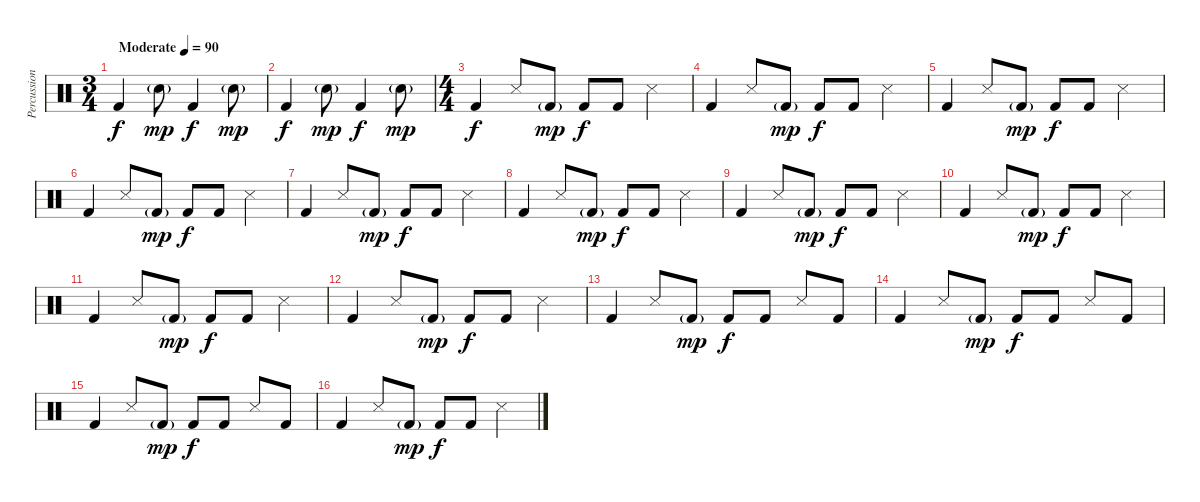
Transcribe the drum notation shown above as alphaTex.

\track ("Percussion" "Percussion") {instrument percussion}
\staff {score}
\articulation defaults
\ts (3 4)
\tempo (90 "Moderate")
\clef neutral
\ks c "Kick (hit) 2".4{dy f} "Snare (hit) 2"{g}.8{dy mp} "Kick (hit) 2".4{dy f} "Snare (hit) 2"{g}.8{dy mp}
|
"Kick (hit) 2".4{dy f} "Snare (hit) 2"{g}.8{dy mp} "Kick (hit) 2".4{dy f} "Snare (hit) 2"{g}.8{dy mp} |
\ts (4 4)
"Kick (hit) 2".4{dy f} "Snare (side stick) 3".8 "Kick (hit) 2"{g}.8{dy mp} "Kick (hit) 2".8{dy f} "Kick (hit) 2".8 "Snare (side stick) 3".4 |
"Kick (hit) 2".4 "Snare (side stick) 3".8 "Kick (hit) 2"{g}.8{dy mp} "Kick (hit) 2".8{dy f} "Kick (hit) 2".8 "Snare (side stick) 3".4 |
"Kick (hit) 2".4 "Snare (side stick) 3".8 "Kick (hit) 2"{g}.8{dy mp} "Kick (hit) 2".8{dy f} "Kick (hit) 2".8 "Snare (side stick) 3".4 |
"Kick (hit) 2".4 "Snare (side stick) 3".8 "Kick (hit) 2"{g}.8{dy mp} "Kick (hit) 2".8{dy f} "Kick (hit) 2".8 "Snare (side stick) 3".4 |
"Kick (hit) 2".4 "Snare (side stick) 3".8 "Kick (hit) 2"{g}.8{dy mp} "Kick (hit) 2".8{dy f} "Kick (hit) 2".8 "Snare (side stick) 3".4 |
"Kick (hit) 2".4 "Snare (side stick) 3".8 "Kick (hit) 2"{g}.8{dy mp} "Kick (hit) 2".8{dy f} "Kick (hit) 2".8 "Snare (side stick) 3".4 |
"Kick (hit) 2".4 "Snare (side stick) 3".8 "Kick (hit) 2"{g}.8{dy mp} "Kick (hit) 2".8{dy f} "Kick (hit) 2".8 "Snare (side stick) 3".4 |
"Kick (hit) 2".4 "Snare (side stick) 3".8 "Kick (hit) 2"{g}.8{dy mp} "Kick (hit) 2".8{dy f} "Kick (hit) 2".8 "Snare (side stick) 3".4 |
"Kick (hit) 2".4 "Snare (side stick) 3".8 "Kick (hit) 2"{g}.8{dy mp} "Kick (hit) 2".8{dy f} "Kick (hit) 2".8 "Snare (side stick) 3".4 |
"Kick (hit) 2".4 "Snare (side stick) 3".8 "Kick (hit) 2"{g}.8{dy mp} "Kick (hit) 2".8{dy f} "Kick (hit) 2".8 "Snare (side stick) 3".4 |
"Kick (hit) 2".4 "Snare (side stick) 3".8 "Kick (hit) 2"{g}.8{dy mp} "Kick (hit) 2".8{dy f} "Kick (hit) 2".8 "Snare (side stick) 3".8 "Kick (hit) 2".8 |
"Kick (hit) 2".4 "Snare (side stick) 3".8 "Kick (hit) 2"{g}.8{dy mp} "Kick (hit) 2".8{dy f} "Kick (hit) 2".8 "Snare (side stick) 3".8 "Kick (hit) 2".8 |
"Kick (hit) 2".4 "Snare (side stick) 3".8 "Kick (hit) 2"{g}.8{dy mp} "Kick (hit) 2".8{dy f} "Kick (hit) 2".8 "Snare (side stick) 3".8 "Kick (hit) 2".8 |
"Kick (hit) 2".4 "Snare (side stick) 3".8 "Kick (hit) 2"{g}.8{dy mp} "Kick (hit) 2".8{dy f} "Kick (hit) 2".8 "Snare (side stick) 3".4
